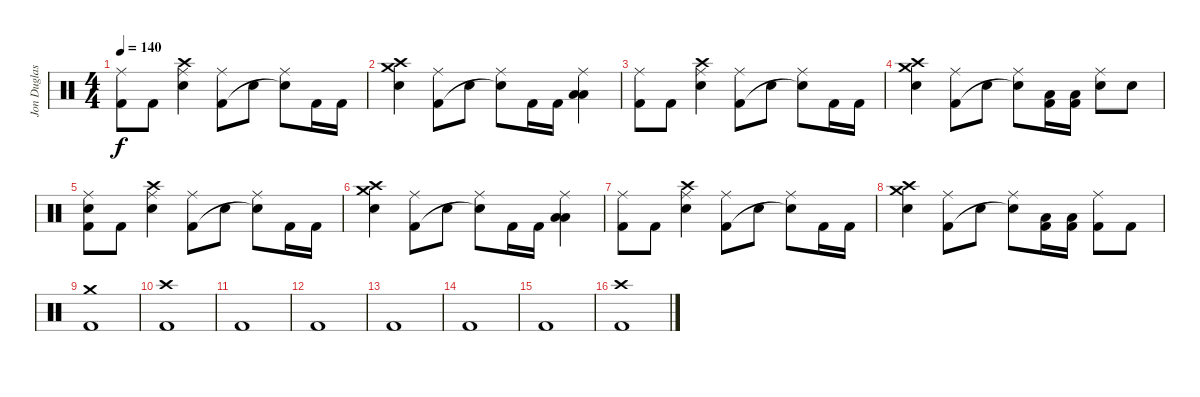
\track ("Jon Duglas (Drums)" "Jon Duglas") {instrument percussion}
\staff {score}
\articulation defaults
\ts (4 4)
\tempo 140
\clef neutral
\ks c
("Ride (middle)" "Kick (hit) 2").8{dy f} "Kick (hit) 2".8 ("Crash high (hit)" "Ride (middle)" "Electric Snare (hit)").4 ("Ride (middle)" "Kick (hit) 2").8 "Electric Snare (hit)".8 ("Ride (middle)" "Snare (hit)"{t}).8 "Kick (hit) 2".16 "Kick (hit) 2".16 |
("Crash high (hit)" "Electric Snare (hit)" "Crash medium (hit)").4 ("Ride (middle)" "Kick (hit) 2").8 "Electric Snare (hit)".8 ("Ride (middle)" "Snare (hit)"{t}).8 "Kick (hit) 2".16 "Kick (hit) 2".16 ("Ride (middle)" "Low Tom (hit)" "Low Tom (hit)").4 |
("Ride (middle)" "Kick (hit) 2").8 "Kick (hit) 2".8 ("Crash high (hit)" "Ride (middle)" "Electric Snare (hit)").4 ("Ride (middle)" "Kick (hit) 2").8 "Electric Snare (hit)".8 ("Ride (middle)" "Snare (hit)"{t}).8 "Kick (hit) 2".16 "Kick (hit) 2".16 |
("Crash high (hit)" "Electric Snare (hit)" "Crash medium (hit)").4 ("Ride (middle)" "Kick (hit) 2").8 "Electric Snare (hit)".8 ("Ride (middle)" "Snare (hit)"{t}).8 ("Low Floor Tom (hit)" "Kick (hit) 2").16 ("Low Floor Tom (hit)" "Kick (hit) 2").16 ("Ride (middle)" "Electric Snare (hit)").8 "Electric Snare (hit)".8 |
("Ride (middle)" "Kick (hit) 2" "Electric Snare (hit)").8 "Kick (hit) 2".8 ("Crash high (hit)" "Ride (middle)" "Electric Snare (hit)").4 ("Ride (middle)" "Kick (hit) 2").8 "Electric Snare (hit)".8 ("Ride (middle)" "Snare (hit)"{t}).8 "Kick (hit) 2".16 "Kick (hit) 2".16 |
("Crash high (hit)" "Electric Snare (hit)" "Crash medium (hit)").4 ("Ride (middle)" "Kick (hit) 2").8 "Electric Snare (hit)".8 ("Ride (middle)" "Snare (hit)"{t}).8 "Kick (hit) 2".16 "Kick (hit) 2".16 ("Ride (middle)" "Low Tom (hit)" "Low Tom (hit)").4 |
("Ride (middle)" "Kick (hit) 2").8 "Kick (hit) 2".8 ("Crash high (hit)" "Ride (middle)" "Electric Snare (hit)").4 ("Ride (middle)" "Kick (hit) 2").8 "Electric Snare (hit)".8 ("Ride (middle)" "Snare (hit)"{t}).8 "Kick (hit) 2".16 "Kick (hit) 2".16 |
("Crash high (hit)" "Electric Snare (hit)" "Crash medium (hit)").4 ("Ride (middle)" "Kick (hit) 2").8 "Electric Snare (hit)".8 ("Ride (middle)" "Snare (hit)"{t}).8 ("Low Floor Tom (hit)" "Kick (hit) 2").16 ("Low Floor Tom (hit)" "Kick (hit) 2").16 ("Ride (middle)" "Kick (hit) 2").8 "Kick (hit) 2".8 |
("Kick (hit) 2" "Crash medium (hit)").1 |
("Kick (hit) 2" "Crash high (hit)").1 |
"Kick (hit) 2".1 |
"Kick (hit) 2".1 |
"Kick (hit) 2".1 |
"Kick (hit) 2".1 |
"Kick (hit) 2".1 |
("Kick (hit) 2" "Crash high (hit)").1
